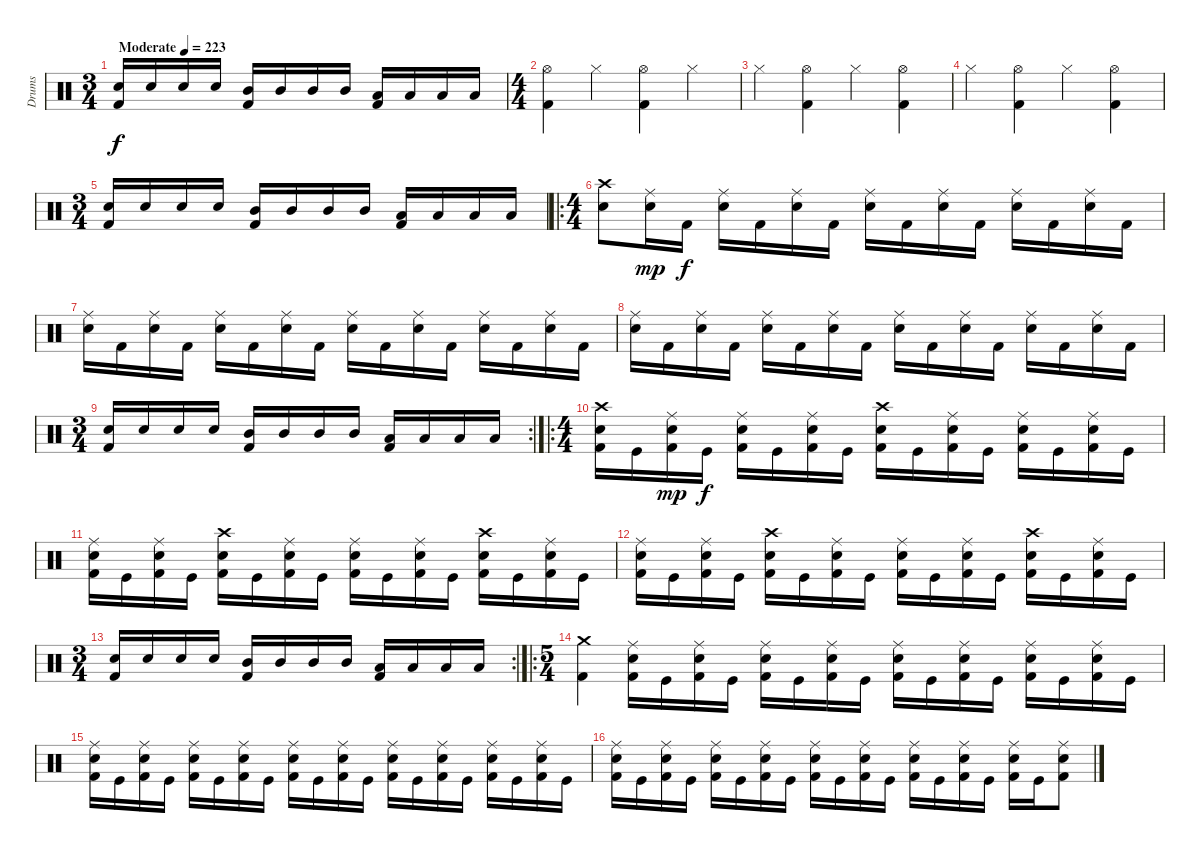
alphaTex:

\track ("Drums" "Drums") {instrument percussion}
\staff {score}
\articulation defaults
\ts (3 4)
\tempo (223 "Moderate")
\clef neutral
\ks c
("Snare (hit) 2" "Kick (hit) 2").16{dy f} "Snare (hit) 2".16 "Snare (hit) 2".16 "Snare (hit) 2".16 ("Mid Tom (hit)" "Kick (hit) 2").16 "Mid Tom (hit)".16 "Mid Tom (hit)".16 "Mid Tom (hit)".16 ("Low Tom (hit)" "Kick (hit) 2").16 "Low Tom (hit)".16 "Low Tom (hit)".16 "Low Tom (hit)".16 |
\ts (4 4)
("Hi-Hat (open)" "Kick (hit) 2").4 "Hi-Hat (closed)".4 ("Hi-Hat (open)" "Kick (hit) 2").4 "Hi-Hat (closed)".4 |
"Hi-Hat (closed)".4 ("Hi-Hat (open)" "Kick (hit) 2").4 "Hi-Hat (closed)".4 ("Hi-Hat (open)" "Kick (hit) 2").4 |
"Hi-Hat (closed)".4 ("Hi-Hat (open)" "Kick (hit) 2").4 "Hi-Hat (closed)".4 ("Hi-Hat (open)" "Kick (hit) 2").4 |
\ts (3 4)
("Snare (hit) 2" "Kick (hit) 2").16 "Snare (hit) 2".16 "Snare (hit) 2".16 "Snare (hit) 2".16 ("Mid Tom (hit)" "Kick (hit) 2").16 "Mid Tom (hit)".16 "Mid Tom (hit)".16 "Mid Tom (hit)".16 ("Low Tom (hit)" "Kick (hit) 2").16 "Low Tom (hit)".16 "Low Tom (hit)".16 "Low Tom (hit)".16 |
\ro
\ts (4 4)
("Crash high (hit)" "Snare (hit) 2").8 ("Ride (middle)" "Snare (hit) 2").16{dy mp} "Kick (hit) 2".16{dy f} ("Ride (middle)" "Snare (hit) 2").16 "Kick (hit) 2".16 ("Ride (middle)" "Snare (hit) 2").16 "Kick (hit) 2".16 ("Ride (middle)" "Snare (hit) 2").16 "Kick (hit) 2".16 ("Ride (middle)" "Snare (hit) 2").16 "Kick (hit) 2".16 ("Ride (middle)" "Snare (hit) 2").16 "Kick (hit) 2".16 ("Ride (middle)" "Snare (hit) 2").16 "Kick (hit) 2".16 |
("Ride (middle)" "Snare (hit) 2").16 "Kick (hit) 2".16 ("Ride (middle)" "Snare (hit) 2").16 "Kick (hit) 2".16 ("Ride (middle)" "Snare (hit) 2").16 "Kick (hit) 2".16 ("Ride (middle)" "Snare (hit) 2").16 "Kick (hit) 2".16 ("Ride (middle)" "Snare (hit) 2").16 "Kick (hit) 2".16 ("Ride (middle)" "Snare (hit) 2").16 "Kick (hit) 2".16 ("Ride (middle)" "Snare (hit) 2").16 "Kick (hit) 2".16 ("Ride (middle)" "Snare (hit) 2").16 "Kick (hit) 2".16 |
("Ride (middle)" "Snare (hit) 2").16 "Kick (hit) 2".16 ("Ride (middle)" "Snare (hit) 2").16 "Kick (hit) 2".16 ("Ride (middle)" "Snare (hit) 2").16 "Kick (hit) 2".16 ("Ride (middle)" "Snare (hit) 2").16 "Kick (hit) 2".16 ("Ride (middle)" "Snare (hit) 2").16 "Kick (hit) 2".16 ("Ride (middle)" "Snare (hit) 2").16 "Kick (hit) 2".16 ("Ride (middle)" "Snare (hit) 2").16 "Kick (hit) 2".16 ("Ride (middle)" "Snare (hit) 2").16 "Kick (hit) 2".16 |
\rc 2
\ts (3 4)
("Snare (hit) 2" "Kick (hit) 2").16 "Snare (hit) 2".16 "Snare (hit) 2".16 "Snare (hit) 2".16 ("Mid Tom (hit)" "Kick (hit) 2").16 "Mid Tom (hit)".16 "Mid Tom (hit)".16 "Mid Tom (hit)".16 ("Low Tom (hit)" "Kick (hit) 2").16 "Low Tom (hit)".16 "Low Tom (hit)".16 "Low Tom (hit)".16 |
\ro
\ts (4 4)
("Crash high (hit)" "Snare (hit) 2" "Kick (hit) 2").16 "Kick (hit)".16 ("Ride (middle)" "Snare (hit) 2" "Kick (hit) 2").16{dy mp} "Kick (hit)".16{dy f} ("Ride (middle)" "Snare (hit) 2" "Kick (hit) 2").16 "Kick (hit)".16 ("Ride (middle)" "Snare (hit) 2" "Kick (hit) 2").16 "Kick (hit)".16 ("Crash high (hit)" "Snare (hit) 2" "Kick (hit) 2").16 "Kick (hit)".16 ("Ride (middle)" "Snare (hit) 2" "Kick (hit) 2").16 "Kick (hit)".16 ("Ride (middle)" "Snare (hit) 2" "Kick (hit) 2").16 "Kick (hit)".16 ("Ride (middle)" "Snare (hit) 2" "Kick (hit) 2").16 "Kick (hit)".16 |
("Ride (middle)" "Snare (hit) 2" "Kick (hit) 2").16 "Kick (hit)".16 ("Ride (middle)" "Snare (hit) 2" "Kick (hit) 2").16 "Kick (hit)".16 ("Crash high (hit)" "Snare (hit) 2" "Kick (hit) 2").16 "Kick (hit)".16 ("Ride (middle)" "Snare (hit) 2" "Kick (hit) 2").16 "Kick (hit)".16 ("Ride (middle)" "Snare (hit) 2" "Kick (hit) 2").16 "Kick (hit)".16 ("Ride (middle)" "Snare (hit) 2" "Kick (hit) 2").16 "Kick (hit)".16 ("Crash high (hit)" "Snare (hit) 2" "Kick (hit) 2").16 "Kick (hit)".16 ("Ride (middle)" "Snare (hit) 2" "Kick (hit) 2").16 "Kick (hit)".16 |
("Ride (middle)" "Snare (hit) 2" "Kick (hit) 2").16 "Kick (hit)".16 ("Ride (middle)" "Snare (hit) 2" "Kick (hit) 2").16 "Kick (hit)".16 ("Crash high (hit)" "Snare (hit) 2" "Kick (hit) 2").16 "Kick (hit)".16 ("Ride (middle)" "Snare (hit) 2" "Kick (hit) 2").16 "Kick (hit)".16 ("Ride (middle)" "Snare (hit) 2" "Kick (hit) 2").16 "Kick (hit)".16 ("Ride (middle)" "Snare (hit) 2" "Kick (hit) 2").16 "Kick (hit)".16 ("Crash high (hit)" "Snare (hit) 2" "Kick (hit) 2").16 "Kick (hit)".16 ("Ride (middle)" "Snare (hit) 2" "Kick (hit) 2").16 "Kick (hit)".16 |
\rc 2
\ts (3 4)
("Snare (hit) 2" "Kick (hit) 2").16 "Snare (hit) 2".16 "Snare (hit) 2".16 "Snare (hit) 2".16 ("Mid Tom (hit)" "Kick (hit) 2").16 "Mid Tom (hit)".16 "Mid Tom (hit)".16 "Mid Tom (hit)".16 ("Low Tom (hit)" "Kick (hit) 2").16 "Low Tom (hit)".16 "Low Tom (hit)".16 "Low Tom (hit)".16 |
\ro
\ts (5 4)
("Crash medium (hit)" "Kick (hit) 2").4 ("Ride (middle)" "Snare (hit) 2" "Kick (hit) 2").16 "Kick (hit)".16 ("Ride (middle)" "Snare (hit) 2" "Kick (hit) 2").16 "Kick (hit)".16 ("Ride (middle)" "Snare (hit) 2" "Kick (hit) 2").16 "Kick (hit)".16 ("Ride (middle)" "Snare (hit) 2" "Kick (hit) 2").16 "Kick (hit)".16 ("Ride (middle)" "Snare (hit) 2" "Kick (hit) 2").16 "Kick (hit)".16 ("Ride (middle)" "Snare (hit) 2" "Kick (hit) 2").16 "Kick (hit)".16 ("Ride (middle)" "Snare (hit) 2" "Kick (hit) 2").16 "Kick (hit)".16 ("Ride (middle)" "Snare (hit) 2" "Kick (hit) 2").16 "Kick (hit)".16 |
("Ride (middle)" "Snare (hit) 2" "Kick (hit) 2").16 "Kick (hit)".16 ("Ride (middle)" "Snare (hit) 2" "Kick (hit) 2").16 "Kick (hit)".16 ("Ride (middle)" "Snare (hit) 2" "Kick (hit) 2").16 "Kick (hit)".16 ("Ride (middle)" "Snare (hit) 2" "Kick (hit) 2").16 "Kick (hit)".16 ("Ride (middle)" "Snare (hit) 2" "Kick (hit) 2").16 "Kick (hit)".16 ("Ride (middle)" "Snare (hit) 2" "Kick (hit) 2").16 "Kick (hit)".16 ("Ride (middle)" "Snare (hit) 2" "Kick (hit) 2").16 "Kick (hit)".16 ("Ride (middle)" "Snare (hit) 2" "Kick (hit) 2").16 "Kick (hit)".16 ("Ride (middle)" "Snare (hit) 2" "Kick (hit) 2").16 "Kick (hit)".16 ("Ride (middle)" "Snare (hit) 2" "Kick (hit) 2").16 "Kick (hit)".16 |
("Ride (middle)" "Snare (hit) 2" "Kick (hit) 2").16 "Kick (hit)".16 ("Ride (middle)" "Snare (hit) 2" "Kick (hit) 2").16 "Kick (hit)".16 ("Ride (middle)" "Snare (hit) 2" "Kick (hit) 2").16 "Kick (hit)".16 ("Ride (middle)" "Snare (hit) 2" "Kick (hit) 2").16 "Kick (hit)".16 ("Ride (middle)" "Snare (hit) 2" "Kick (hit) 2").16 "Kick (hit)".16 ("Ride (middle)" "Snare (hit) 2" "Kick (hit) 2").16 "Kick (hit)".16 ("Ride (middle)" "Snare (hit) 2" "Kick (hit) 2").16 "Kick (hit)".16 ("Ride (middle)" "Snare (hit) 2" "Kick (hit) 2").16 "Kick (hit)".16 ("Ride (middle)" "Snare (hit) 2" "Kick (hit) 2").16 "Kick (hit)".16 ("Ride (middle)" "Snare (hit) 2" "Kick (hit) 2").8
